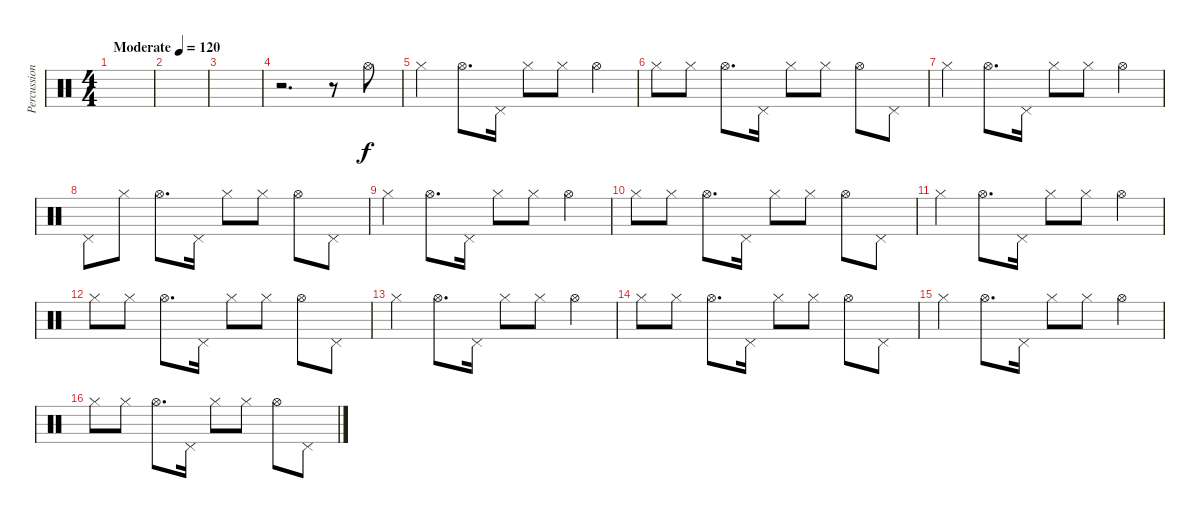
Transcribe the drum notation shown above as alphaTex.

\track ("Percussions" "Percussion") {instrument percussion}
\staff {score}
\articulation defaults
\ts (4 4)
\tempo (120 "Moderate")
\clef neutral
\ks c
|
|
|
r.2{d} r.8 "Hi-Hat (open)".8 |
"Hi-Hat (closed)".4 "Hi-Hat (open)".8{d} "Pedal Hi-Hat (hit)".16 "Hi-Hat (closed)".8 "Hi-Hat (closed)".8 "Hi-Hat (open)".4 |
"Hi-Hat (closed)".8 "Hi-Hat (closed)".8 "Hi-Hat (open)".8{d} "Pedal Hi-Hat (hit)".16 "Hi-Hat (closed)".8 "Hi-Hat (closed)".8 "Hi-Hat (open)".8 "Pedal Hi-Hat (hit)".8 |
"Hi-Hat (closed)".4 "Hi-Hat (open)".8{d} "Pedal Hi-Hat (hit)".16 "Hi-Hat (closed)".8 "Hi-Hat (closed)".8 "Hi-Hat (open)".4 |
"Pedal Hi-Hat (hit)".8 "Hi-Hat (closed)".8 "Hi-Hat (open)".8{d} "Pedal Hi-Hat (hit)".16 "Hi-Hat (closed)".8 "Hi-Hat (closed)".8 "Hi-Hat (open)".8 "Pedal Hi-Hat (hit)".8 |
"Hi-Hat (closed)".4 "Hi-Hat (open)".8{d} "Pedal Hi-Hat (hit)".16 "Hi-Hat (closed)".8 "Hi-Hat (closed)".8 "Hi-Hat (open)".4 |
"Hi-Hat (closed)".8 "Hi-Hat (closed)".8 "Hi-Hat (open)".8{d} "Pedal Hi-Hat (hit)".16 "Hi-Hat (closed)".8 "Hi-Hat (closed)".8 "Hi-Hat (open)".8 "Pedal Hi-Hat (hit)".8 |
"Hi-Hat (closed)".4 "Hi-Hat (open)".8{d} "Pedal Hi-Hat (hit)".16 "Hi-Hat (closed)".8 "Hi-Hat (closed)".8 "Hi-Hat (open)".4 |
"Hi-Hat (closed)".8 "Hi-Hat (closed)".8 "Hi-Hat (open)".8{d} "Pedal Hi-Hat (hit)".16 "Hi-Hat (closed)".8 "Hi-Hat (closed)".8 "Hi-Hat (open)".8 "Pedal Hi-Hat (hit)".8 |
"Hi-Hat (closed)".4 "Hi-Hat (open)".8{d} "Pedal Hi-Hat (hit)".16 "Hi-Hat (closed)".8 "Hi-Hat (closed)".8 "Hi-Hat (open)".4 |
"Hi-Hat (closed)".8 "Hi-Hat (closed)".8 "Hi-Hat (open)".8{d} "Pedal Hi-Hat (hit)".16 "Hi-Hat (closed)".8 "Hi-Hat (closed)".8 "Hi-Hat (open)".8 "Pedal Hi-Hat (hit)".8 |
"Hi-Hat (closed)".4 "Hi-Hat (open)".8{d} "Pedal Hi-Hat (hit)".16 "Hi-Hat (closed)".8 "Hi-Hat (closed)".8 "Hi-Hat (open)".4 |
"Hi-Hat (closed)".8 "Hi-Hat (closed)".8 "Hi-Hat (open)".8{d} "Pedal Hi-Hat (hit)".16 "Hi-Hat (closed)".8 "Hi-Hat (closed)".8 "Hi-Hat (open)".8 "Pedal Hi-Hat (hit)".8
